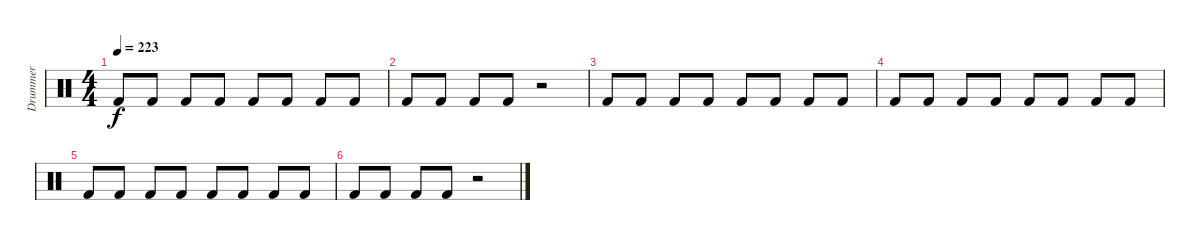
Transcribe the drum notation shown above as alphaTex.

\track ("Drummer" "Drummer") {instrument percussion}
\staff {score}
\articulation defaults
\ts (4 4)
\tempo 223
\clef neutral
\ks c "Kick (hit) 2".8{dy f} "Kick (hit) 2".8 "Kick (hit) 2".8 "Kick (hit) 2".8 "Kick (hit) 2".8 "Kick (hit) 2".8 "Kick (hit) 2".8 "Kick (hit) 2".8
|
"Kick (hit) 2".8 "Kick (hit) 2".8 "Kick (hit) 2".8 "Kick (hit) 2".8 r.2 |
"Kick (hit) 2".8 "Kick (hit) 2".8 "Kick (hit) 2".8 "Kick (hit) 2".8 "Kick (hit) 2".8 "Kick (hit) 2".8 "Kick (hit) 2".8 "Kick (hit) 2".8 |
"Kick (hit) 2".8 "Kick (hit) 2".8 "Kick (hit) 2".8 "Kick (hit) 2".8 "Kick (hit) 2".8 "Kick (hit) 2".8 "Kick (hit) 2".8 "Kick (hit) 2".8 |
"Kick (hit) 2".8 "Kick (hit) 2".8 "Kick (hit) 2".8 "Kick (hit) 2".8 "Kick (hit) 2".8 "Kick (hit) 2".8 "Kick (hit) 2".8 "Kick (hit) 2".8 |
"Kick (hit) 2".8 "Kick (hit) 2".8 "Kick (hit) 2".8 "Kick (hit) 2".8 r.2
